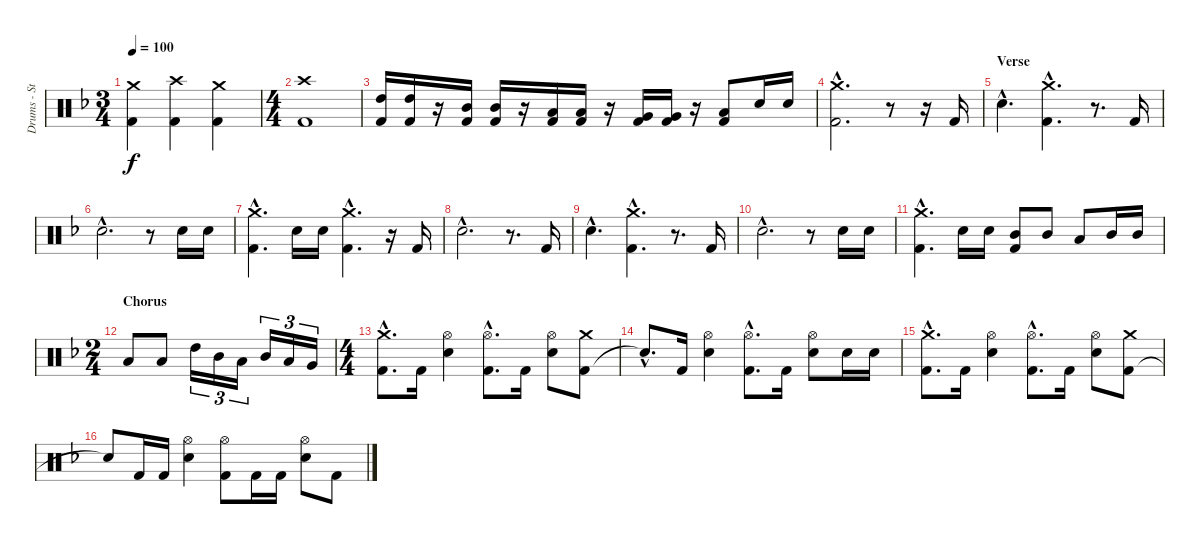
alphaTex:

\track ("Drums - Steve Wacholz" "Drums - St") {instrument percussion}
\staff {score}
\articulation defaults
\ts (3 4)
\tempo 100
\clef neutral
\ks f
("Kick (hit) 2" "Crash medium (hit)").4{dy f} ("Kick (hit) 2" "Crash high (hit)").4 ("Kick (hit) 2" "Crash medium (hit)").4 |
\ts (4 4)
("Kick (hit) 2" "Crash high (hit)").1 |
("Kick (hit) 2" "High Tom (hit)").16 ("Kick (hit) 2" "High Tom (hit)").16 r.16 ("Kick (hit) 2" "Mid Tom (hit)").16 ("Kick (hit) 2" "Mid Tom (hit)").16 r.16 ("Kick (hit) 2" "Low Tom (hit)").16 ("Kick (hit) 2" "Low Tom (hit)").16 r.16 ("Kick (hit) 2" "Very Low Tom (hit)").16 ("Kick (hit) 2" "Very Low Tom (hit)").16 r.16 ("Kick (hit) 2" "Low Floor Tom (hit)").8 "Electric Snare (hit)".16 "Electric Snare (hit)".16 |
("Kick (hit) 2"{hac} "Crash medium (hit)"{hac}).2{d} r.8 r.16 "Kick (hit) 2".16 |
\section ("" "Verse")
"Electric Snare (hit)"{hac}.4{d} ("Kick (hit) 2"{hac} "Crash medium (hit)"{hac}).4{d} r.8{d} "Kick (hit) 2".16 |
"Electric Snare (hit)"{hac}.2{d} r.8 "Electric Snare (hit)".16 "Electric Snare (hit)".16 |
("Kick (hit) 2"{hac} "Crash medium (hit)"{hac}).4{d} "Electric Snare (hit)".16 "Electric Snare (hit)".16 ("Kick (hit) 2"{hac} "Crash medium (hit)"{hac}).4{d} r.16 "Kick (hit) 2".16 |
"Electric Snare (hit)"{hac}.2{d} r.8{d} "Kick (hit) 2".16 |
"Electric Snare (hit)"{hac}.4{d} ("Kick (hit) 2"{hac} "Crash medium (hit)"{hac}).4{d} r.8{d} "Kick (hit) 2".16 |
"Electric Snare (hit)"{hac}.2{d} r.8 "Electric Snare (hit)".16 "Electric Snare (hit)".16 |
("Kick (hit) 2"{hac} "Crash medium (hit)"{hac}).4{d} "Electric Snare (hit)".16 "Electric Snare (hit)".16 ("Kick (hit) 2" "Mid Tom (hit)").8 "Mid Tom (hit)".8 "Low Tom (hit)".8 "Mid Tom (hit)".16 "Mid Tom (hit)".16 |
\ts (2 4)
\section ("" "Chorus")
"Low Tom (hit)".8 "Low Tom (hit)".8 "High Tom (hit)".16{tu (3 2)} "Mid Tom (hit)".16{tu (3 2)} "Low Tom (hit)".16{tu (3 2)} "Mid Tom (hit)".16{tu (3 2)} "Low Tom (hit)".16{tu (3 2)} "Very Low Tom (hit)".16{tu (3 2)} |
\ts (4 4)
("Kick (hit) 2"{hac} "Crash medium (hit)"{hac}).8{d} "Kick (hit) 2".16 ("Electric Snare (hit)" "Hi-Hat (open)").4 ("Kick (hit) 2"{hac} "Hi-Hat (open)"{hac}).8{d} "Kick (hit) 2".16 ("Electric Snare (hit)" "Hi-Hat (open)").8 ("Kick (hit) 2" "Crash medium (hit)").8 |
"Snare (hit)"{hac t}.8{d} "Kick (hit) 2".16 ("Electric Snare (hit)" "Hi-Hat (open)").4 ("Kick (hit) 2"{hac} "Hi-Hat (open)"{hac}).8{d} "Kick (hit) 2".16 ("Electric Snare (hit)" "Hi-Hat (open)").8 "Electric Snare (hit)".16 "Electric Snare (hit)".16 |
("Kick (hit) 2"{hac} "Crash medium (hit)"{hac}).8{d} "Kick (hit) 2".16 ("Electric Snare (hit)" "Hi-Hat (open)").4 ("Kick (hit) 2"{hac} "Hi-Hat (open)"{hac}).8{d} "Kick (hit) 2".16 ("Electric Snare (hit)" "Hi-Hat (open)").8 ("Kick (hit) 2" "Crash medium (hit)").8 |
"Snare (hit)"{t}.8 "Kick (hit) 2".16 "Kick (hit) 2".16 ("Electric Snare (hit)" "Hi-Hat (open)").4 ("Kick (hit) 2" "Hi-Hat (open)").8 "Kick (hit) 2".16 "Kick (hit) 2".16 ("Electric Snare (hit)" "Hi-Hat (open)").8 "Kick (hit) 2".8
